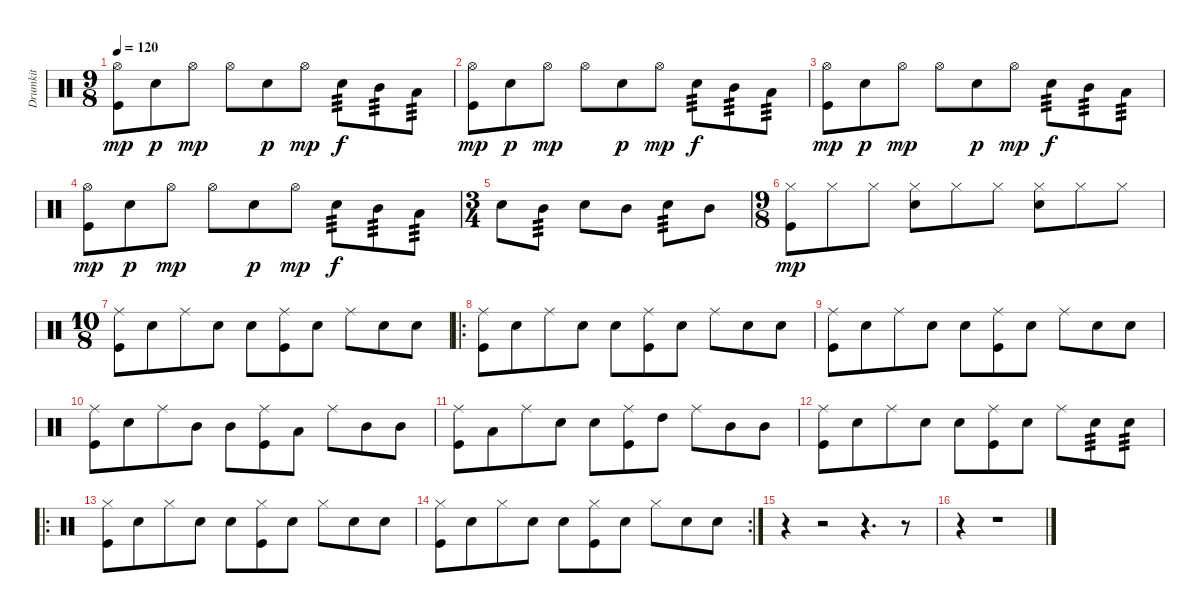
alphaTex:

\track ("Drumkit" "Drumkit") {instrument percussion}
\staff {score}
\articulation defaults
\ts (9 8)
\tempo 120
\clef neutral
\ks c
("Hi-Hat (open)" "Kick (hit)").8{dy mp} "Snare (hit) 2".8{dy p} "Hi-Hat (open)".8{dy mp} "Hi-Hat (open)".8 "Snare (hit) 2".8{dy p} "Hi-Hat (open)".8{dy mp} "Snare (hit) 2".8{tp 3 dy f} "Mid Tom (hit)".8{tp 3} "Low Tom (hit)".8{tp 3} |
("Hi-Hat (open)" "Kick (hit)").8{dy mp} "Snare (hit) 2".8{dy p} "Hi-Hat (open)".8{dy mp} "Hi-Hat (open)".8 "Snare (hit) 2".8{dy p} "Hi-Hat (open)".8{dy mp} "Snare (hit) 2".8{tp 3 dy f} "Mid Tom (hit)".8{tp 3} "Low Tom (hit)".8{tp 3} |
("Hi-Hat (open)" "Kick (hit)").8{dy mp} "Snare (hit) 2".8{dy p} "Hi-Hat (open)".8{dy mp} "Hi-Hat (open)".8 "Snare (hit) 2".8{dy p} "Hi-Hat (open)".8{dy mp} "Snare (hit) 2".8{tp 3 dy f} "Mid Tom (hit)".8{tp 3} "Low Tom (hit)".8{tp 3} |
("Hi-Hat (open)" "Kick (hit)").8{dy mp} "Snare (hit) 2".8{dy p} "Hi-Hat (open)".8{dy mp} "Hi-Hat (open)".8 "Snare (hit) 2".8{dy p} "Hi-Hat (open)".8{dy mp} "Snare (hit) 2".8{tp 3 dy f} "Mid Tom (hit)".8{tp 3} "Low Tom (hit)".8{tp 3} |
\ts (3 4)
"Snare (hit) 2".8 "Mid Tom (hit)".8{tp 3} "Snare (hit) 2".8 "Mid Tom (hit)".8 "Snare (hit) 2".8{tp 3} "Mid Tom (hit)".8 |
\ts (9 8)
("Hi-Hat (closed)" "Kick (hit)").8{dy mp} "Hi-Hat (closed)".8 "Hi-Hat (closed)".8 ("Hi-Hat (closed)" "Snare (hit) 2").8 "Hi-Hat (closed)".8 "Hi-Hat (closed)".8 ("Hi-Hat (closed)" "Snare (hit) 2").8 "Hi-Hat (closed)".8 "Hi-Hat (closed)".8 |
\ts (10 8)
("Ride (middle)" "Kick (hit)").8 "Snare (hit) 2".8 "Ride (middle)".8 "Snare (hit) 2".8 "Snare (hit) 2".8 ("Ride (middle)" "Kick (hit)").8 "Snare (hit) 2".8 "Ride (middle)".8 "Snare (hit) 2".8 "Snare (hit) 2".8 |
\ro
("Ride (middle)" "Kick (hit)").8 "Snare (hit) 2".8 "Ride (middle)".8 "Snare (hit) 2".8 "Snare (hit) 2".8 ("Ride (middle)" "Kick (hit)").8 "Snare (hit) 2".8 "Ride (middle)".8 "Snare (hit) 2".8 "Snare (hit) 2".8 |
("Ride (middle)" "Kick (hit)").8 "Snare (hit) 2".8 "Ride (middle)".8 "Snare (hit) 2".8 "Snare (hit) 2".8 ("Ride (middle)" "Kick (hit)").8 "Snare (hit) 2".8 "Ride (middle)".8 "Snare (hit) 2".8 "Snare (hit) 2".8 |
("Ride (middle)" "Kick (hit)").8 "Snare (hit) 2".8 "Ride (middle)".8 "Mid Tom (hit)".8 "Mid Tom (hit)".8 ("Ride (middle)" "Kick (hit)").8 "Low Tom (hit)".8 "Ride (middle)".8 "Mid Tom (hit)".8 "Mid Tom (hit)".8 |
("Ride (middle)" "Kick (hit)").8 "Low Tom (hit)".8 "Ride (middle)".8 "Snare (hit) 2".8 "Snare (hit) 2".8 ("Ride (middle)" "Kick (hit)").8 "High Tom (hit)".8 "Ride (middle)".8 "Mid Tom (hit)".8 "Mid Tom (hit)".8 |
("Ride (middle)" "Kick (hit)").8 "Snare (hit) 2".8 "Ride (middle)".8 "Snare (hit) 2".8 "Snare (hit) 2".8 ("Ride (middle)" "Kick (hit)").8 "Snare (hit) 2".8 "Ride (middle)".8 "Snare (hit) 2".8{tp 3} "Snare (hit) 2".8{tp 3} |
\ro
("Hi-Hat (closed)" "Kick (hit)").8 "Snare (hit) 2".8 "Hi-Hat (closed)".8 "Snare (hit) 2".8 "Snare (hit) 2".8 ("Hi-Hat (closed)" "Kick (hit)").8 "Snare (hit) 2".8 "Hi-Hat (closed)".8 "Snare (hit) 2".8 "Snare (hit) 2".8 |
\rc 2
("Hi-Hat (closed)" "Kick (hit)").8 "Snare (hit) 2".8 "Hi-Hat (closed)".8 "Snare (hit) 2".8 "Snare (hit) 2".8 ("Hi-Hat (closed)" "Kick (hit)").8 "Snare (hit) 2".8 "Hi-Hat (closed)".8 "Snare (hit) 2".8 "Snare (hit) 2".8 |
r.4 r.2 r.4{d} r.8 |
r.4 r.1
